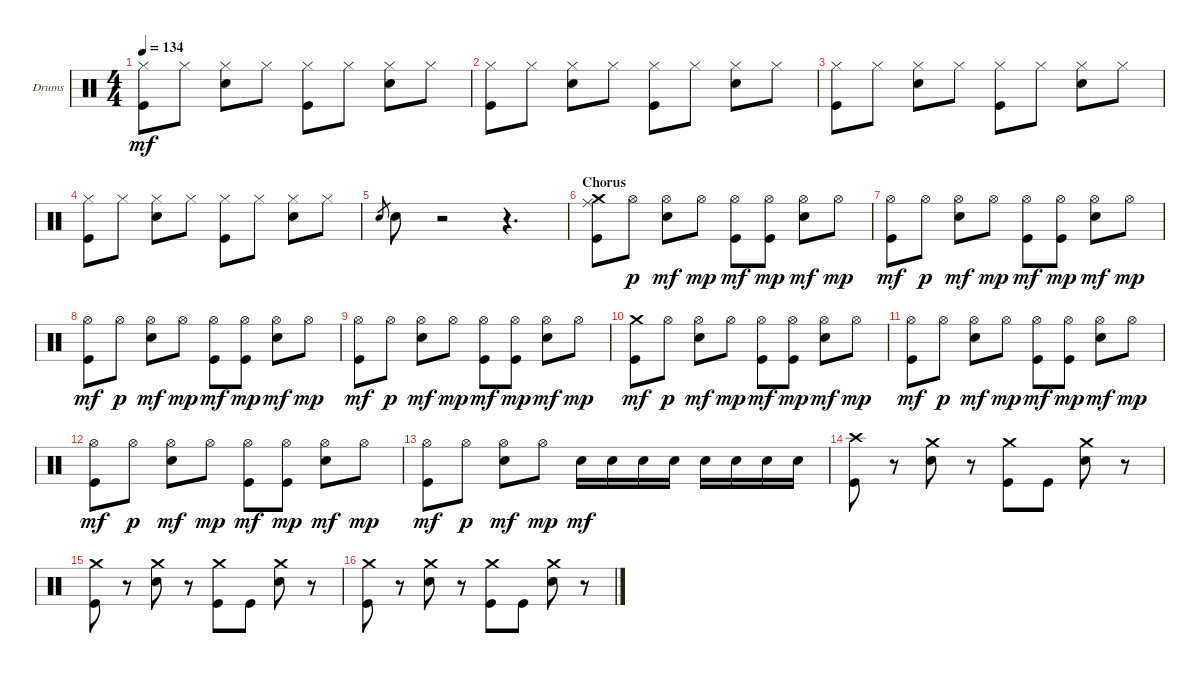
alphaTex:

\defaultSystemsLayout 4
\bracketExtendMode groupsimilarinstruments
\firstSystemTrackNameOrientation horizontal
\otherSystemsTrackNameOrientation horizontal
\track ("Drums" "Drums") {instrument percussion}
\staff {score}
\articulation defaults
\ts (4 4)
\tempo 134
\clef neutral
\ks c
("Hi-Hat (closed)" "Kick (hit)").8{dy mf} "Hi-Hat (closed)".8 ("Hi-Hat (closed)" "Snare (hit) 2").8 "Hi-Hat (closed)".8 ("Hi-Hat (closed)" "Kick (hit)").8 "Hi-Hat (closed)".8 ("Hi-Hat (closed)" "Snare (hit) 2").8 "Hi-Hat (closed)".8 |
("Hi-Hat (closed)" "Kick (hit)").8 "Hi-Hat (closed)".8 ("Hi-Hat (closed)" "Snare (hit) 2").8 "Hi-Hat (closed)".8 ("Hi-Hat (closed)" "Kick (hit)").8 "Hi-Hat (closed)".8 ("Hi-Hat (closed)" "Snare (hit) 2").8 "Hi-Hat (closed)".8 |
("Hi-Hat (closed)" "Kick (hit)").8 "Hi-Hat (closed)".8 ("Hi-Hat (closed)" "Snare (hit) 2").8 "Hi-Hat (closed)".8 ("Hi-Hat (closed)" "Kick (hit)").8 "Hi-Hat (closed)".8 ("Hi-Hat (closed)" "Snare (hit) 2").8 "Hi-Hat (closed)".8 |
("Hi-Hat (closed)" "Kick (hit)").8 "Hi-Hat (closed)".8 ("Hi-Hat (closed)" "Snare (hit) 2").8 "Hi-Hat (closed)".8 ("Hi-Hat (closed)" "Kick (hit)").8 "Hi-Hat (closed)".8 ("Hi-Hat (closed)" "Snare (hit) 2").8 "Hi-Hat (closed)".8 |
"Snare (hit) 2".8{gr} "Snare (hit) 2".8 r.2 r.4{d} |
\section ("" "Chorus")
("Kick (hit)" "Ride (middle)" "Crash medium (hit)").8 "Hi-Hat (open)".8{dy p} ("Hi-Hat (open)" "Snare (hit) 2").8{dy mf} "Hi-Hat (open)".8{dy mp} ("Hi-Hat (open)" "Kick (hit)").8{dy mf} ("Hi-Hat (open)" "Kick (hit)").8{dy mp} ("Hi-Hat (open)" "Snare (hit) 2").8{dy mf} "Hi-Hat (open)".8{dy mp} |
("Hi-Hat (open)" "Kick (hit)").8{dy mf} "Hi-Hat (open)".8{dy p} ("Hi-Hat (open)" "Snare (hit) 2").8{dy mf} "Hi-Hat (open)".8{dy mp} ("Hi-Hat (open)" "Kick (hit)").8{dy mf} ("Hi-Hat (open)" "Kick (hit)").8{dy mp} ("Hi-Hat (open)" "Snare (hit) 2").8{dy mf} "Hi-Hat (open)".8{dy mp} |
("Hi-Hat (open)" "Kick (hit)").8{dy mf} "Hi-Hat (open)".8{dy p} ("Hi-Hat (open)" "Snare (hit) 2").8{dy mf} "Hi-Hat (open)".8{dy mp} ("Hi-Hat (open)" "Kick (hit)").8{dy mf} ("Hi-Hat (open)" "Kick (hit)").8{dy mp} ("Hi-Hat (open)" "Snare (hit) 2").8{dy mf} "Hi-Hat (open)".8{dy mp} |
("Hi-Hat (open)" "Kick (hit)").8{dy mf} "Hi-Hat (open)".8{dy p} ("Hi-Hat (open)" "Snare (hit) 2").8{dy mf} "Hi-Hat (open)".8{dy mp} ("Hi-Hat (open)" "Kick (hit)").8{dy mf} ("Hi-Hat (open)" "Kick (hit)").8{dy mp} ("Hi-Hat (open)" "Snare (hit) 2").8{dy mf} "Hi-Hat (open)".8{dy mp} |
("Kick (hit)" "Crash medium (hit)").8{dy mf} "Hi-Hat (open)".8{dy p} ("Hi-Hat (open)" "Snare (hit) 2").8{dy mf} "Hi-Hat (open)".8{dy mp} ("Hi-Hat (open)" "Kick (hit)").8{dy mf} ("Hi-Hat (open)" "Kick (hit)").8{dy mp} ("Hi-Hat (open)" "Snare (hit) 2").8{dy mf} "Hi-Hat (open)".8{dy mp} |
("Hi-Hat (open)" "Kick (hit)").8{dy mf} "Hi-Hat (open)".8{dy p} ("Hi-Hat (open)" "Snare (hit) 2").8{dy mf} "Hi-Hat (open)".8{dy mp} ("Hi-Hat (open)" "Kick (hit)").8{dy mf} ("Hi-Hat (open)" "Kick (hit)").8{dy mp} ("Hi-Hat (open)" "Snare (hit) 2").8{dy mf} "Hi-Hat (open)".8{dy mp} |
("Hi-Hat (open)" "Kick (hit)").8{dy mf} "Hi-Hat (open)".8{dy p} ("Hi-Hat (open)" "Snare (hit) 2").8{dy mf} "Hi-Hat (open)".8{dy mp} ("Hi-Hat (open)" "Kick (hit)").8{dy mf} ("Hi-Hat (open)" "Kick (hit)").8{dy mp} ("Hi-Hat (open)" "Snare (hit) 2").8{dy mf} "Hi-Hat (open)".8{dy mp} |
("Hi-Hat (open)" "Kick (hit)").8{dy mf} "Hi-Hat (open)".8{dy p} ("Hi-Hat (open)" "Snare (hit) 2").8{dy mf} "Hi-Hat (open)".8{dy mp} "Snare (hit) 2".16{dy mf} "Snare (hit) 2".16 "Snare (hit) 2".16 "Snare (hit) 2".16 "Snare (hit) 2".16 "Snare (hit) 2".16 "Snare (hit) 2".16 "Snare (hit) 2".16 |
("Kick (hit)" "Crash high (hit)").8 r.8 ("Snare (hit) 2" "Crash medium (hit)").8 r.8 ("Kick (hit)" "Crash medium (hit)").8 "Kick (hit)".8 ("Snare (hit) 2" "Crash medium (hit)").8 r.8 |
("Kick (hit)" "Crash medium (hit)").8 r.8 ("Snare (hit) 2" "Crash medium (hit)").8 r.8 ("Kick (hit)" "Crash medium (hit)").8 "Kick (hit)".8 ("Snare (hit) 2" "Crash medium (hit)").8 r.8 |
("Kick (hit)" "Crash medium (hit)").8 r.8 ("Snare (hit) 2" "Crash medium (hit)").8 r.8 ("Kick (hit)" "Crash medium (hit)").8 "Kick (hit)".8 ("Snare (hit) 2" "Crash medium (hit)").8 r.8
